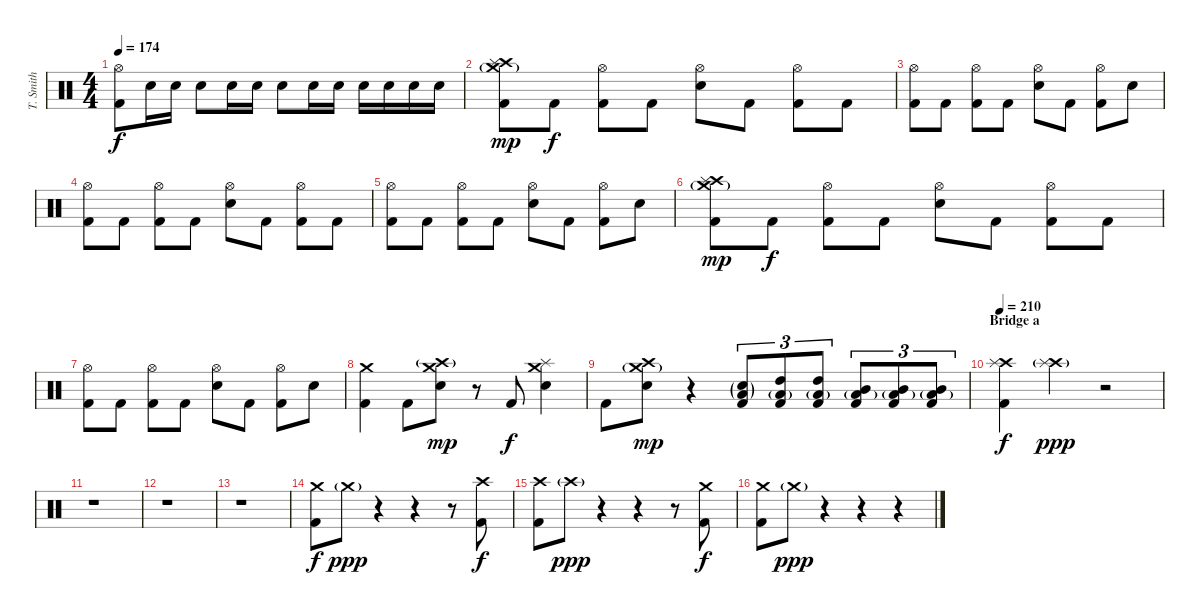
\track ("T. Smith" "T. Smith") {instrument percussion}
\staff {score}
\articulation defaults
\ts (4 4)
\tempo 174
\clef neutral
\ks c
("Hi-Hat (open)" "Kick (hit) 2").8{dy f} "Electric Snare (hit)".16 "Electric Snare (hit)".16 "Electric Snare (hit)".8 "Electric Snare (hit)".16 "Electric Snare (hit)".16 "Electric Snare (hit)".8 "Electric Snare (hit)".16 "Electric Snare (hit)".16 "Electric Snare (hit)".16 "Electric Snare (hit)".16 "Electric Snare (hit)".16 "Electric Snare (hit)".16 |
("Crash medium (hit)"{g} "Crash high (hit)" "Splash (hit)" "Kick (hit) 2").8{dy mp} "Kick (hit) 2".8{dy f} ("Hi-Hat (open)" "Kick (hit) 2").8 "Kick (hit) 2".8 ("Hi-Hat (open)" "Electric Snare (hit)").8 "Kick (hit) 2".8 ("Hi-Hat (open)" "Kick (hit) 2").8 "Kick (hit) 2".8 |
("Hi-Hat (open)" "Kick (hit) 2").8 "Kick (hit) 2".8 ("Hi-Hat (open)" "Kick (hit) 2").8 "Kick (hit) 2".8 ("Hi-Hat (open)" "Electric Snare (hit)").8 "Kick (hit) 2".8 ("Hi-Hat (open)" "Kick (hit) 2").8 "Electric Snare (hit)".8 |
("Hi-Hat (open)" "Kick (hit) 2").8 "Kick (hit) 2".8 ("Hi-Hat (open)" "Kick (hit) 2").8 "Kick (hit) 2".8 ("Hi-Hat (open)" "Electric Snare (hit)").8 "Kick (hit) 2".8 ("Hi-Hat (open)" "Kick (hit) 2").8 "Kick (hit) 2".8 |
("Hi-Hat (open)" "Kick (hit) 2").8 "Kick (hit) 2".8 ("Hi-Hat (open)" "Kick (hit) 2").8 "Kick (hit) 2".8 ("Hi-Hat (open)" "Electric Snare (hit)").8 "Kick (hit) 2".8 ("Hi-Hat (open)" "Kick (hit) 2").8 "Electric Snare (hit)".8 |
("Crash medium (hit)"{g} "Crash high (hit)" "Splash (hit)" "Kick (hit) 2").8{dy mp} "Kick (hit) 2".8{dy f} ("Hi-Hat (open)" "Kick (hit) 2").8 "Kick (hit) 2".8 ("Hi-Hat (open)" "Electric Snare (hit)").8 "Kick (hit) 2".8 ("Hi-Hat (open)" "Kick (hit) 2").8 "Kick (hit) 2".8 |
("Hi-Hat (open)" "Kick (hit) 2").8 "Kick (hit) 2".8 ("Hi-Hat (open)" "Kick (hit) 2").8 "Kick (hit) 2".8 ("Hi-Hat (open)" "Electric Snare (hit)").8 "Kick (hit) 2".8 ("Hi-Hat (open)" "Kick (hit) 2").8 "Electric Snare (hit)".8 |
("Crash medium (hit)" "Kick (hit) 2").4 "Kick (hit) 2".8 ("Crash high (hit)"{g} "Crash medium (hit)" "Electric Snare (hit)").8{dy mp} r.8 "Kick (hit) 2".8{dy f} ("Crash medium (hit)" "Splash (hit)" "Electric Snare (hit)").4 |
"Kick (hit) 2".8 ("Crash high (hit)" "Crash medium (hit)"{g} "Electric Snare (hit)").8{dy mp} r.4 ("Low Tom (hit)"{g} "Electric Snare (hit)"{g} "Kick (hit) 2").8{tu (3 2)} ("Low Tom (hit)"{g} "High Tom (hit)" "Kick (hit) 2").8{tu (3 2)} ("Low Tom (hit)"{g} "High Tom (hit)" "Kick (hit) 2").8{tu (3 2)} ("Low Tom (hit)"{g} "Mid Tom (hit)" "Kick (hit) 2").8{tu (3 2)} ("Low Tom (hit)"{g} "Mid Tom (hit)" "Kick (hit) 2").8{tu (3 2)} ("Low Tom (hit)"{g} "Mid Tom (hit)" "Kick (hit) 2").8{tu (3 2)} |
\section ("" "Bridge a")
\tempo 210
("Crash high (hit)" "Splash (hit)" "Kick (hit) 2").4{dy f} ("Crash high (hit)"{g} "Splash (hit)"{g}).4{dy ppp} r.2 |
r.1 |
r.1 |
r.1 |
("Crash medium (hit)" "Kick (hit) 2").8{dy f} "Crash medium (hit)"{g}.8{dy ppp} r.4 r.4 r.8 ("Crash high (hit)" "Kick (hit) 2").8{dy f} |
("Crash high (hit)" "Kick (hit) 2").8 "Crash high (hit)"{g}.8{dy ppp} r.4 r.4 r.8 ("Crash medium (hit)" "Kick (hit) 2").8{dy f} |
("Crash medium (hit)" "Kick (hit) 2").8 "Crash medium (hit)"{g}.8{dy ppp} r.4 r.4 r.4
